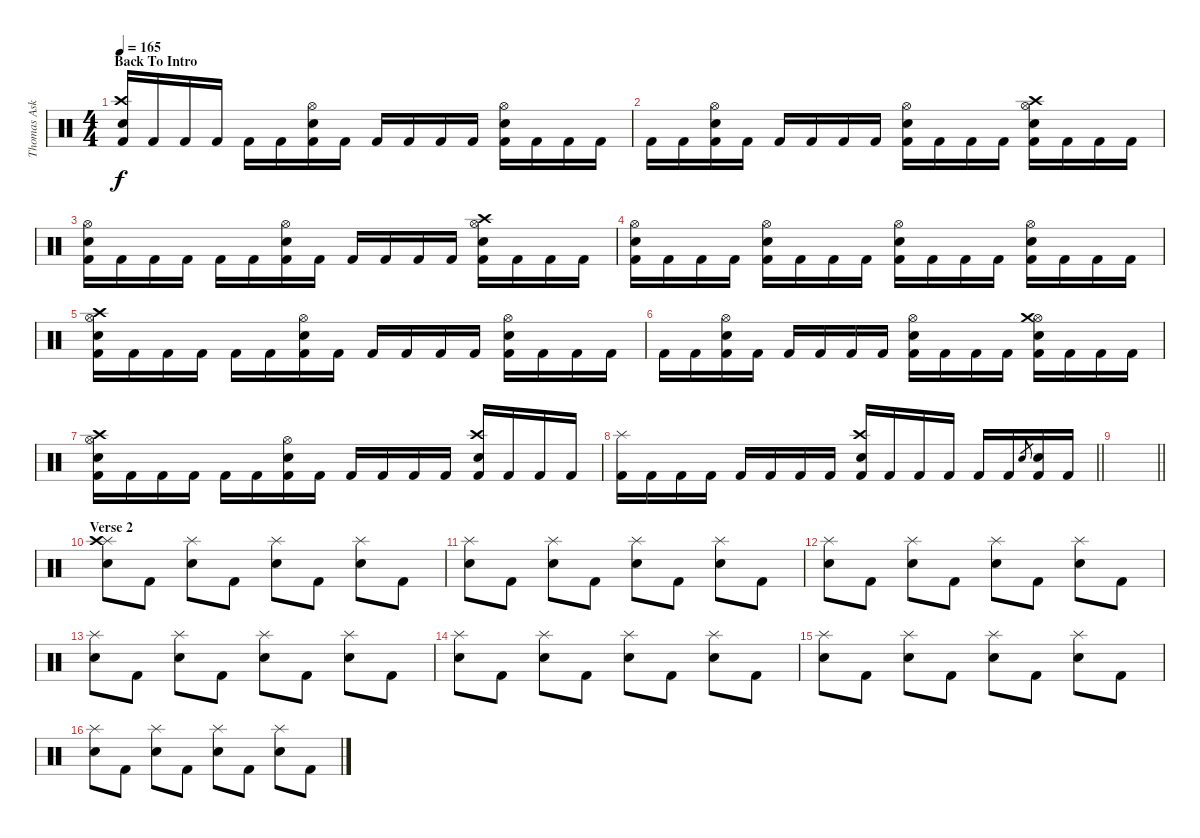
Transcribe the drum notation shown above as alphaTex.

\track ("Thomas Asklund" "Thomas Ask") {instrument percussion}
\staff {score}
\articulation defaults
\ts (4 4)
\section ("" "Back To Intro")
\tempo 165
\clef neutral
\ks c
("Snare (hit) 2" "Crash high (hit)" "Kick (hit) 2").16{dy f} "Kick (hit) 2".16 "Kick (hit) 2".16 "Kick (hit) 2".16 "Kick (hit) 2".16 "Kick (hit) 2".16 ("Snare (hit) 2" "Hi-Hat (open)" "Kick (hit) 2").16 "Kick (hit) 2".16 "Kick (hit) 2".16 "Kick (hit) 2".16 "Kick (hit) 2".16 "Kick (hit) 2".16 ("Snare (hit) 2" "Hi-Hat (open)" "Kick (hit) 2").16 "Kick (hit) 2".16 "Kick (hit) 2".16 "Kick (hit) 2".16 |
"Kick (hit) 2".16 "Kick (hit) 2".16 ("Hi-Hat (open)" "Snare (hit) 2" "Kick (hit) 2").16 "Kick (hit) 2".16 "Kick (hit) 2".16 "Kick (hit) 2".16 "Kick (hit) 2".16 "Kick (hit) 2".16 ("Hi-Hat (open)" "Snare (hit) 2" "Kick (hit) 2").16 "Kick (hit) 2".16 "Kick (hit) 2".16 "Kick (hit) 2".16 ("Hi-Hat (open)" "Snare (hit) 2" "Crash high (hit)" "Kick (hit) 2").16 "Kick (hit) 2".16 "Kick (hit) 2".16 "Kick (hit) 2".16 |
("Hi-Hat (open)" "Snare (hit) 2" "Kick (hit) 2").16 "Kick (hit) 2".16 "Kick (hit) 2".16 "Kick (hit) 2".16 "Kick (hit) 2".16 "Kick (hit) 2".16 ("Hi-Hat (open)" "Snare (hit) 2" "Kick (hit) 2").16 "Kick (hit) 2".16 "Kick (hit) 2".16 "Kick (hit) 2".16 "Kick (hit) 2".16 "Kick (hit) 2".16 ("Hi-Hat (open)" "Snare (hit) 2" "Crash high (hit)" "Kick (hit) 2").16 "Kick (hit) 2".16 "Kick (hit) 2".16 "Kick (hit) 2".16 |
("Hi-Hat (open)" "Snare (hit) 2" "Kick (hit) 2").16 "Kick (hit) 2".16 "Kick (hit) 2".16 "Kick (hit) 2".16 ("Hi-Hat (open)" "Snare (hit) 2" "Kick (hit) 2").16 "Kick (hit) 2".16 "Kick (hit) 2".16 "Kick (hit) 2".16 ("Hi-Hat (open)" "Snare (hit) 2" "Kick (hit) 2").16 "Kick (hit) 2".16 "Kick (hit) 2".16 "Kick (hit) 2".16 ("Hi-Hat (open)" "Snare (hit) 2" "Kick (hit) 2").16 "Kick (hit) 2".16 "Kick (hit) 2".16 "Kick (hit) 2".16 |
("Snare (hit) 2" "Hi-Hat (open)" "Crash high (hit)" "Kick (hit) 2").16 "Kick (hit) 2".16 "Kick (hit) 2".16 "Kick (hit) 2".16 "Kick (hit) 2".16 "Kick (hit) 2".16 ("Hi-Hat (open)" "Snare (hit) 2" "Kick (hit) 2").16 "Kick (hit) 2".16 "Kick (hit) 2".16 "Kick (hit) 2".16 "Kick (hit) 2".16 "Kick (hit) 2".16 ("Hi-Hat (open)" "Snare (hit) 2" "Kick (hit) 2").16 "Kick (hit) 2".16 "Kick (hit) 2".16 "Kick (hit) 2".16 |
"Kick (hit) 2".16 "Kick (hit) 2".16 ("Hi-Hat (open)" "Snare (hit) 2" "Kick (hit) 2").16 "Kick (hit) 2".16 "Kick (hit) 2".16 "Kick (hit) 2".16 "Kick (hit) 2".16 "Kick (hit) 2".16 ("Hi-Hat (open)" "Snare (hit) 2" "Kick (hit) 2").16 "Kick (hit) 2".16 "Kick (hit) 2".16 "Kick (hit) 2".16 ("Hi-Hat (open)" "Snare (hit) 2" "Crash medium (hit)" "Kick (hit) 2").16 "Kick (hit) 2".16 "Kick (hit) 2".16 "Kick (hit) 2".16 |
("Hi-Hat (open)" "Snare (hit) 2" "Crash high (hit)" "Kick (hit) 2").16 "Kick (hit) 2".16 "Kick (hit) 2".16 "Kick (hit) 2".16 "Kick (hit) 2".16 "Kick (hit) 2".16 ("Hi-Hat (open)" "Snare (hit) 2" "Kick (hit) 2").16 "Kick (hit) 2".16 "Kick (hit) 2".16 "Kick (hit) 2".16 "Kick (hit) 2".16 "Kick (hit) 2".16 ("Crash high (hit)" "Snare (hit) 2" "Kick (hit) 2").16 "Kick (hit) 2".16 "Kick (hit) 2".16 "Kick (hit) 2".16 |
\barLineRight lightlight
("Splash (hit)" "Kick (hit) 2").16 "Kick (hit) 2".16 "Kick (hit) 2".16 "Kick (hit) 2".16 "Kick (hit) 2".16 "Kick (hit) 2".16 "Kick (hit) 2".16 "Kick (hit) 2".16 ("Crash high (hit)" "Snare (hit) 2" "Kick (hit) 2").16 "Kick (hit) 2".16 "Kick (hit) 2".16 "Kick (hit) 2".16 "Kick (hit) 2".16 "Kick (hit) 2".16 "Electric Snare (hit)".8{gr} ("Electric Snare (hit)" "Kick (hit) 2").16 "Kick (hit) 2".16 |
\section ("" " ")
\barLineRight lightlight
|
\section ("" "Verse 2")
("Splash (hit)" "Crash high (hit)" "Snare (hit) 2").8 "Kick (hit) 2".8 ("Splash (hit)" "Snare (hit) 2").8 "Kick (hit) 2".8 ("Splash (hit)" "Snare (hit) 2").8 "Kick (hit) 2".8 ("Splash (hit)" "Snare (hit) 2").8 "Kick (hit) 2".8 |
("Splash (hit)" "Snare (hit) 2").8 "Kick (hit) 2".8 ("Splash (hit)" "Snare (hit) 2").8 "Kick (hit) 2".8 ("Splash (hit)" "Snare (hit) 2").8 "Kick (hit) 2".8 ("Splash (hit)" "Snare (hit) 2").8 "Kick (hit) 2".8 |
("Splash (hit)" "Snare (hit) 2").8 "Kick (hit) 2".8 ("Splash (hit)" "Snare (hit) 2").8 "Kick (hit) 2".8 ("Splash (hit)" "Snare (hit) 2").8 "Kick (hit) 2".8 ("Splash (hit)" "Snare (hit) 2").8 "Kick (hit) 2".8 |
("Splash (hit)" "Snare (hit) 2").8 "Kick (hit) 2".8 ("Splash (hit)" "Snare (hit) 2").8 "Kick (hit) 2".8 ("Splash (hit)" "Snare (hit) 2").8 "Kick (hit) 2".8 ("Splash (hit)" "Snare (hit) 2").8 "Kick (hit) 2".8 |
("Splash (hit)" "Snare (hit) 2").8 "Kick (hit) 2".8 ("Splash (hit)" "Snare (hit) 2").8 "Kick (hit) 2".8 ("Splash (hit)" "Snare (hit) 2").8 "Kick (hit) 2".8 ("Splash (hit)" "Snare (hit) 2").8 "Kick (hit) 2".8 |
("Splash (hit)" "Snare (hit) 2").8 "Kick (hit) 2".8 ("Splash (hit)" "Snare (hit) 2").8 "Kick (hit) 2".8 ("Splash (hit)" "Snare (hit) 2").8 "Kick (hit) 2".8 ("Splash (hit)" "Snare (hit) 2").8 "Kick (hit) 2".8 |
("Splash (hit)" "Snare (hit) 2").8 "Kick (hit) 2".8 ("Splash (hit)" "Snare (hit) 2").8 "Kick (hit) 2".8 ("Splash (hit)" "Snare (hit) 2").8 "Kick (hit) 2".8 ("Splash (hit)" "Snare (hit) 2").8 "Kick (hit) 2".8
